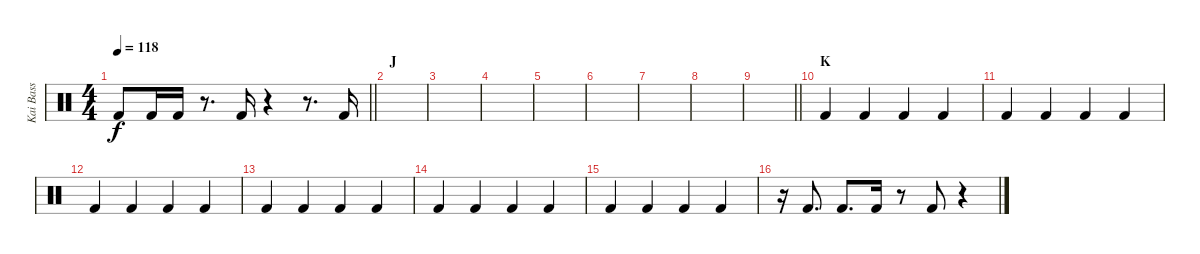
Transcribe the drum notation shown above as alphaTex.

\track ("Kai Bass" "Kai Bass") {instrument percussion}
\staff {score}
\articulation defaults
\ts (4 4)
\tempo 118
\clef neutral
\barLineRight lightlight
\ks c "Kick (hit) 2".8{dy f} "Kick (hit) 2".16 "Kick (hit) 2".16
r.8{d} "Kick (hit) 2".16 r.4 r.8{d} "Kick (hit) 2".16 |
\section ("" "J")
|
|
|
|
|
|
|
\barLineRight lightlight
|
\section ("" "K")
"Kick (hit) 2".4 "Kick (hit) 2".4 "Kick (hit) 2".4 "Kick (hit) 2".4 |
"Kick (hit) 2".4 "Kick (hit) 2".4 "Kick (hit) 2".4 "Kick (hit) 2".4 |
"Kick (hit) 2".4 "Kick (hit) 2".4 "Kick (hit) 2".4 "Kick (hit) 2".4 |
"Kick (hit) 2".4 "Kick (hit) 2".4 "Kick (hit) 2".4 "Kick (hit) 2".4 |
"Kick (hit) 2".4 "Kick (hit) 2".4 "Kick (hit) 2".4 "Kick (hit) 2".4 |
"Kick (hit) 2".4 "Kick (hit) 2".4 "Kick (hit) 2".4 "Kick (hit) 2".4 |
r.16 "Kick (hit) 2".8{d} "Kick (hit) 2".8{d} "Kick (hit) 2".16 r.8 "Kick (hit) 2".8 r.4
